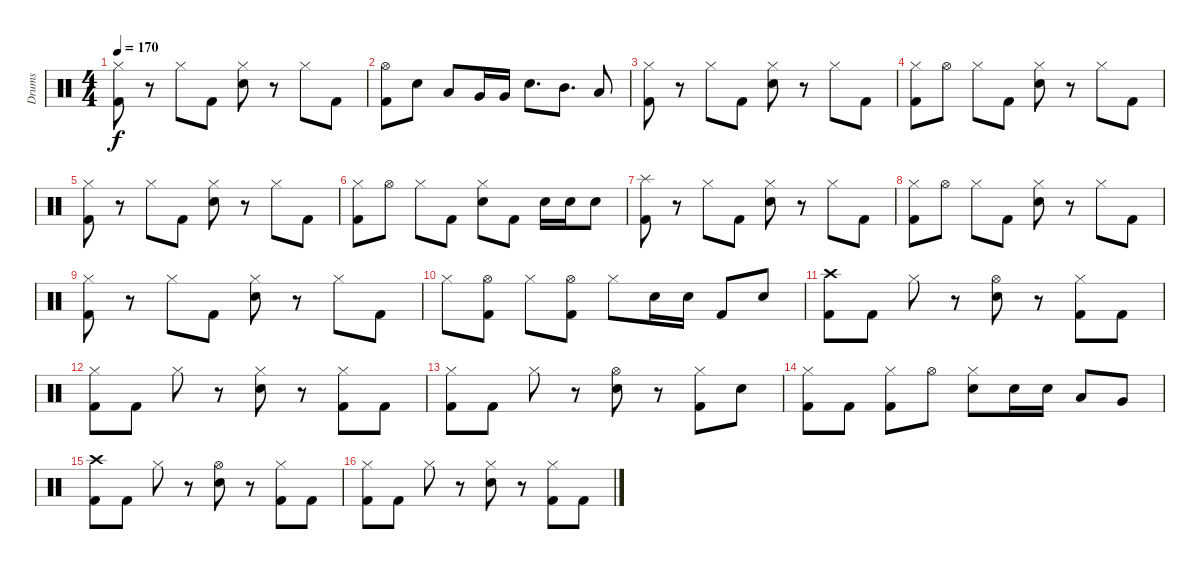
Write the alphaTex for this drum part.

\track ("Drums" "Drums") {instrument percussion}
\staff {score}
\articulation defaults
\ts (4 4)
\tempo 170
\clef neutral
\ks c
("Hi-Hat (closed)" "Kick (hit) 2").8{dy f} r.8 "Hi-Hat (closed)".8 "Kick (hit) 2".8 ("Snare (hit) 2" "Hi-Hat (closed)").8 r.8 "Hi-Hat (closed)".8 "Kick (hit) 2".8 |
("Hi-Hat (open)" "Kick (hit) 2").8 "Snare (hit) 2".8 "Low Tom (hit)".8 "Very Low Tom (hit)".16 "Very Low Tom (hit)".16 "Snare (hit) 2".8{d} "Mid Tom (hit)".8{d} "Low Tom (hit)".8 |
("Hi-Hat (closed)" "Kick (hit) 2").8 r.8 "Hi-Hat (closed)".8 "Kick (hit) 2".8 ("Snare (hit) 2" "Hi-Hat (closed)").8 r.8 "Hi-Hat (closed)".8 "Kick (hit) 2".8 |
("Hi-Hat (closed)" "Kick (hit) 2").8 "Hi-Hat (open)".8 "Hi-Hat (closed)".8 "Kick (hit) 2".8 ("Snare (hit) 2" "Hi-Hat (closed)").8 r.8 "Hi-Hat (closed)".8 "Kick (hit) 2".8 |
("Hi-Hat (closed)" "Kick (hit) 2").8 r.8 "Hi-Hat (closed)".8 "Kick (hit) 2".8 ("Snare (hit) 2" "Hi-Hat (closed)").8 r.8 "Hi-Hat (closed)".8 "Kick (hit) 2".8 |
("Hi-Hat (closed)" "Kick (hit) 2").8 "Hi-Hat (open)".8 "Hi-Hat (closed)".8 "Kick (hit) 2".8 ("Snare (hit) 2" "Hi-Hat (closed)").8 "Kick (hit) 2".8 "Snare (hit) 2".16 "Snare (hit) 2".16 "Snare (hit) 2".8 |
("Splash (hit)" "Kick (hit) 2").8 r.8 "Hi-Hat (closed)".8 "Kick (hit) 2".8 ("Snare (hit) 2" "Hi-Hat (closed)").8 r.8 "Hi-Hat (closed)".8 "Kick (hit) 2".8 |
("Hi-Hat (closed)" "Kick (hit) 2").8 "Hi-Hat (open)".8 "Hi-Hat (closed)".8 "Kick (hit) 2".8 ("Snare (hit) 2" "Hi-Hat (closed)").8 r.8 "Hi-Hat (closed)".8 "Kick (hit) 2".8 |
("Hi-Hat (closed)" "Kick (hit) 2").8 r.8 "Hi-Hat (closed)".8 "Kick (hit) 2".8 ("Snare (hit) 2" "Hi-Hat (closed)").8 r.8 "Hi-Hat (closed)".8 "Kick (hit) 2".8 |
"Hi-Hat (closed)".8 ("Hi-Hat (open)" "Kick (hit) 2").8 "Hi-Hat (closed)".8 ("Hi-Hat (open)" "Kick (hit) 2").8 "Hi-Hat (closed)".8 "Snare (hit) 2".16 "Snare (hit) 2".16 "Kick (hit) 2".8 "Snare (hit) 2".8 |
("Crash high (hit)" "Kick (hit) 2").8 "Kick (hit) 2".8 "Hi-Hat (closed)".8 r.8 ("Snare (hit) 2" "Hi-Hat (open)").8 r.8 ("Hi-Hat (closed)" "Kick (hit) 2").8 "Kick (hit) 2".8 |
("Hi-Hat (closed)" "Kick (hit) 2").8 "Kick (hit) 2".8 "Hi-Hat (closed)".8 r.8 ("Snare (hit) 2" "Hi-Hat (closed)").8 r.8 ("Hi-Hat (closed)" "Kick (hit) 2").8 "Kick (hit) 2".8 |
("Hi-Hat (closed)" "Kick (hit) 2").8 "Kick (hit) 2".8 "Hi-Hat (closed)".8 r.8 ("Snare (hit) 2" "Hi-Hat (open)").8 r.8 ("Hi-Hat (closed)" "Kick (hit) 2").8 "Snare (hit) 2".8 |
("Hi-Hat (closed)" "Kick (hit) 2").8 "Kick (hit) 2".8 ("Hi-Hat (closed)" "Kick (hit) 2").8 "Hi-Hat (open)".8 ("Snare (hit) 2" "Hi-Hat (closed)").8 "Snare (hit) 2".16 "Snare (hit) 2".16 "Low Tom (hit)".8 "Very Low Tom (hit)".8 |
("Crash high (hit)" "Kick (hit) 2").8 "Kick (hit) 2".8 "Hi-Hat (closed)".8 r.8 ("Snare (hit) 2" "Hi-Hat (open)").8 r.8 ("Hi-Hat (closed)" "Kick (hit) 2").8 "Kick (hit) 2".8 |
("Hi-Hat (closed)" "Kick (hit) 2").8 "Kick (hit) 2".8 "Hi-Hat (closed)".8 r.8 ("Snare (hit) 2" "Hi-Hat (closed)").8 r.8 ("Hi-Hat (closed)" "Kick (hit) 2").8 "Kick (hit) 2".8
